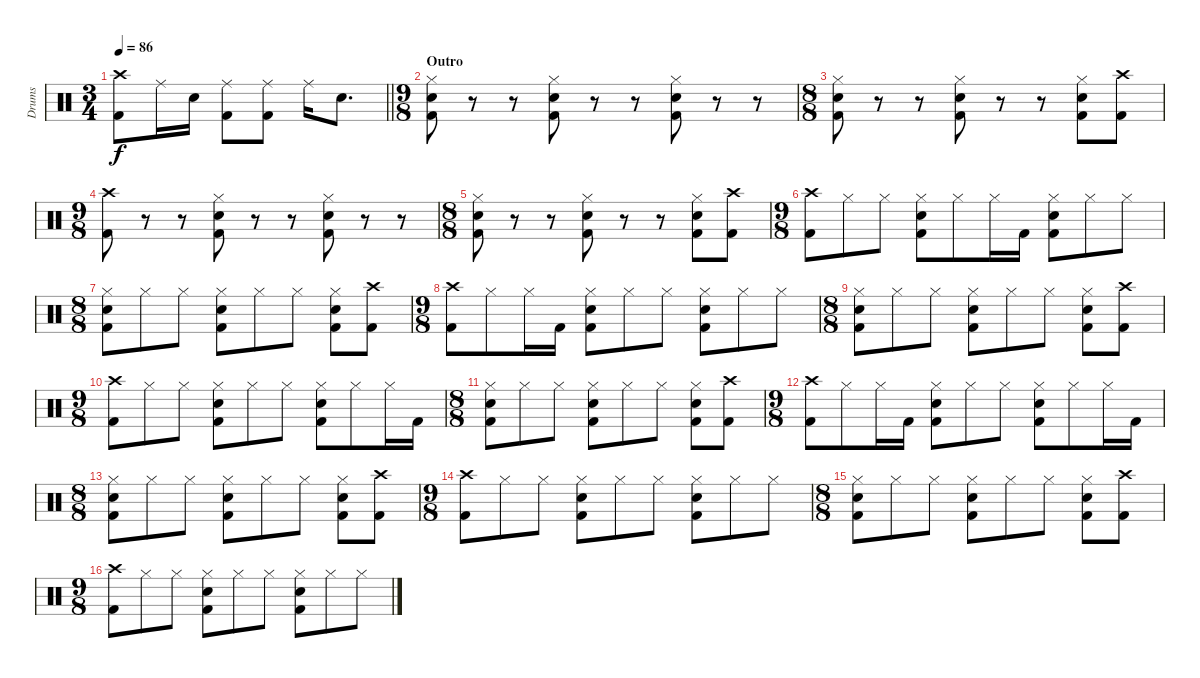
\track ("Drums" "Drums") {instrument percussion}
\staff {score}
\articulation defaults
\ts (3 4)
\tempo 86
\clef neutral
\barLineRight lightlight
\ks c
("Crash high (hit)" "Kick (hit) 2").8{dy f} "Ride (middle)".16 "Snare (hit) 2".16 ("Ride (middle)" "Kick (hit) 2").8 ("Ride (middle)" "Kick (hit) 2").8 "Ride (middle)".16 "Snare (hit) 2".8{d} |
\ts (9 8)
\section ("" "Outro")
("Hi-Hat (closed)" "Snare (hit) 2" "Kick (hit) 2").8 r.8 r.8 ("Hi-Hat (closed)" "Snare (hit) 2" "Kick (hit) 2").8 r.8 r.8 ("Hi-Hat (closed)" "Snare (hit) 2" "Kick (hit) 2").8 r.8 r.8 |
\ts (8 8)
("Hi-Hat (closed)" "Snare (hit) 2" "Kick (hit) 2").8 r.8 r.8 ("Hi-Hat (closed)" "Snare (hit) 2" "Kick (hit) 2").8 r.8 r.8 ("Hi-Hat (closed)" "Snare (hit) 2" "Kick (hit) 2").8 ("Crash high (hit)" "Kick (hit) 2").8 |
\ts (9 8)
("Crash high (hit)" "Kick (hit) 2").8 r.8 r.8 ("Hi-Hat (closed)" "Snare (hit) 2" "Kick (hit) 2").8 r.8 r.8 ("Hi-Hat (closed)" "Snare (hit) 2" "Kick (hit) 2").8 r.8 r.8 |
\ts (8 8)
("Hi-Hat (closed)" "Snare (hit) 2" "Kick (hit) 2").8 r.8 r.8 ("Hi-Hat (closed)" "Snare (hit) 2" "Kick (hit) 2").8 r.8 r.8 ("Hi-Hat (closed)" "Snare (hit) 2" "Kick (hit) 2").8 ("Crash high (hit)" "Kick (hit) 2").8 |
\ts (9 8)
("Crash high (hit)" "Kick (hit) 2").8 "Hi-Hat (closed)".8 "Hi-Hat (closed)".8 ("Hi-Hat (closed)" "Snare (hit) 2" "Kick (hit) 2").8 "Hi-Hat (closed)".8 "Hi-Hat (closed)".16 "Kick (hit) 2".16 ("Hi-Hat (closed)" "Snare (hit) 2" "Kick (hit) 2").8 "Hi-Hat (closed)".8 "Hi-Hat (closed)".8 |
\ts (8 8)
("Hi-Hat (closed)" "Snare (hit) 2" "Kick (hit) 2").8 "Hi-Hat (closed)".8 "Hi-Hat (closed)".8 ("Hi-Hat (closed)" "Snare (hit) 2" "Kick (hit) 2").8 "Hi-Hat (closed)".8 "Hi-Hat (closed)".8 ("Hi-Hat (closed)" "Snare (hit) 2" "Kick (hit) 2").8 ("Crash high (hit)" "Kick (hit) 2").8 |
\ts (9 8)
("Crash high (hit)" "Kick (hit) 2").8 "Hi-Hat (closed)".8 "Hi-Hat (closed)".16 "Kick (hit) 2".16 ("Hi-Hat (closed)" "Snare (hit) 2" "Kick (hit) 2").8 "Hi-Hat (closed)".8 "Hi-Hat (closed)".8 ("Hi-Hat (closed)" "Snare (hit) 2" "Kick (hit) 2").8 "Hi-Hat (closed)".8 "Hi-Hat (closed)".8 |
\ts (8 8)
("Hi-Hat (closed)" "Snare (hit) 2" "Kick (hit) 2").8 "Hi-Hat (closed)".8 "Hi-Hat (closed)".8 ("Hi-Hat (closed)" "Snare (hit) 2" "Kick (hit) 2").8 "Hi-Hat (closed)".8 "Hi-Hat (closed)".8 ("Hi-Hat (closed)" "Snare (hit) 2" "Kick (hit) 2").8 ("Crash high (hit)" "Kick (hit) 2").8 |
\ts (9 8)
("Crash high (hit)" "Kick (hit) 2").8 "Hi-Hat (closed)".8 "Hi-Hat (closed)".8 ("Hi-Hat (closed)" "Snare (hit) 2" "Kick (hit) 2").8 "Hi-Hat (closed)".8 "Hi-Hat (closed)".8 ("Hi-Hat (closed)" "Snare (hit) 2" "Kick (hit) 2").8 "Hi-Hat (closed)".8 "Hi-Hat (closed)".16 "Kick (hit) 2".16 |
\ts (8 8)
("Hi-Hat (closed)" "Snare (hit) 2" "Kick (hit) 2").8 "Hi-Hat (closed)".8 "Hi-Hat (closed)".8 ("Hi-Hat (closed)" "Snare (hit) 2" "Kick (hit) 2").8 "Hi-Hat (closed)".8 "Hi-Hat (closed)".8 ("Hi-Hat (closed)" "Snare (hit) 2" "Kick (hit) 2").8 ("Crash high (hit)" "Kick (hit) 2").8 |
\ts (9 8)
("Crash high (hit)" "Kick (hit) 2").8 "Hi-Hat (closed)".8 "Hi-Hat (closed)".16 "Kick (hit) 2".16 ("Hi-Hat (closed)" "Snare (hit) 2" "Kick (hit) 2").8 "Hi-Hat (closed)".8 "Hi-Hat (closed)".8 ("Hi-Hat (closed)" "Snare (hit) 2" "Kick (hit) 2").8 "Hi-Hat (closed)".8 "Hi-Hat (closed)".16 "Kick (hit) 2".16 |
\ts (8 8)
("Hi-Hat (closed)" "Snare (hit) 2" "Kick (hit) 2").8 "Hi-Hat (closed)".8 "Hi-Hat (closed)".8 ("Hi-Hat (closed)" "Snare (hit) 2" "Kick (hit) 2").8 "Hi-Hat (closed)".8 "Hi-Hat (closed)".8 ("Hi-Hat (closed)" "Snare (hit) 2" "Kick (hit) 2").8 ("Crash high (hit)" "Kick (hit) 2").8 |
\ts (9 8)
("Crash high (hit)" "Kick (hit) 2").8 "Hi-Hat (closed)".8 "Hi-Hat (closed)".8 ("Hi-Hat (closed)" "Snare (hit) 2" "Kick (hit) 2").8 "Hi-Hat (closed)".8 "Hi-Hat (closed)".8 ("Hi-Hat (closed)" "Snare (hit) 2" "Kick (hit) 2").8 "Hi-Hat (closed)".8 "Hi-Hat (closed)".8 |
\ts (8 8)
("Hi-Hat (closed)" "Snare (hit) 2" "Kick (hit) 2").8 "Hi-Hat (closed)".8 "Hi-Hat (closed)".8 ("Hi-Hat (closed)" "Snare (hit) 2" "Kick (hit) 2").8 "Hi-Hat (closed)".8 "Hi-Hat (closed)".8 ("Hi-Hat (closed)" "Snare (hit) 2" "Kick (hit) 2").8 ("Crash high (hit)" "Kick (hit) 2").8 |
\ts (9 8)
("Crash high (hit)" "Kick (hit) 2").8 "Hi-Hat (closed)".8 "Hi-Hat (closed)".8 ("Hi-Hat (closed)" "Snare (hit) 2" "Kick (hit) 2").8 "Hi-Hat (closed)".8 "Hi-Hat (closed)".8 ("Hi-Hat (closed)" "Snare (hit) 2" "Kick (hit) 2").8 "Hi-Hat (closed)".8 "Hi-Hat (closed)".8
